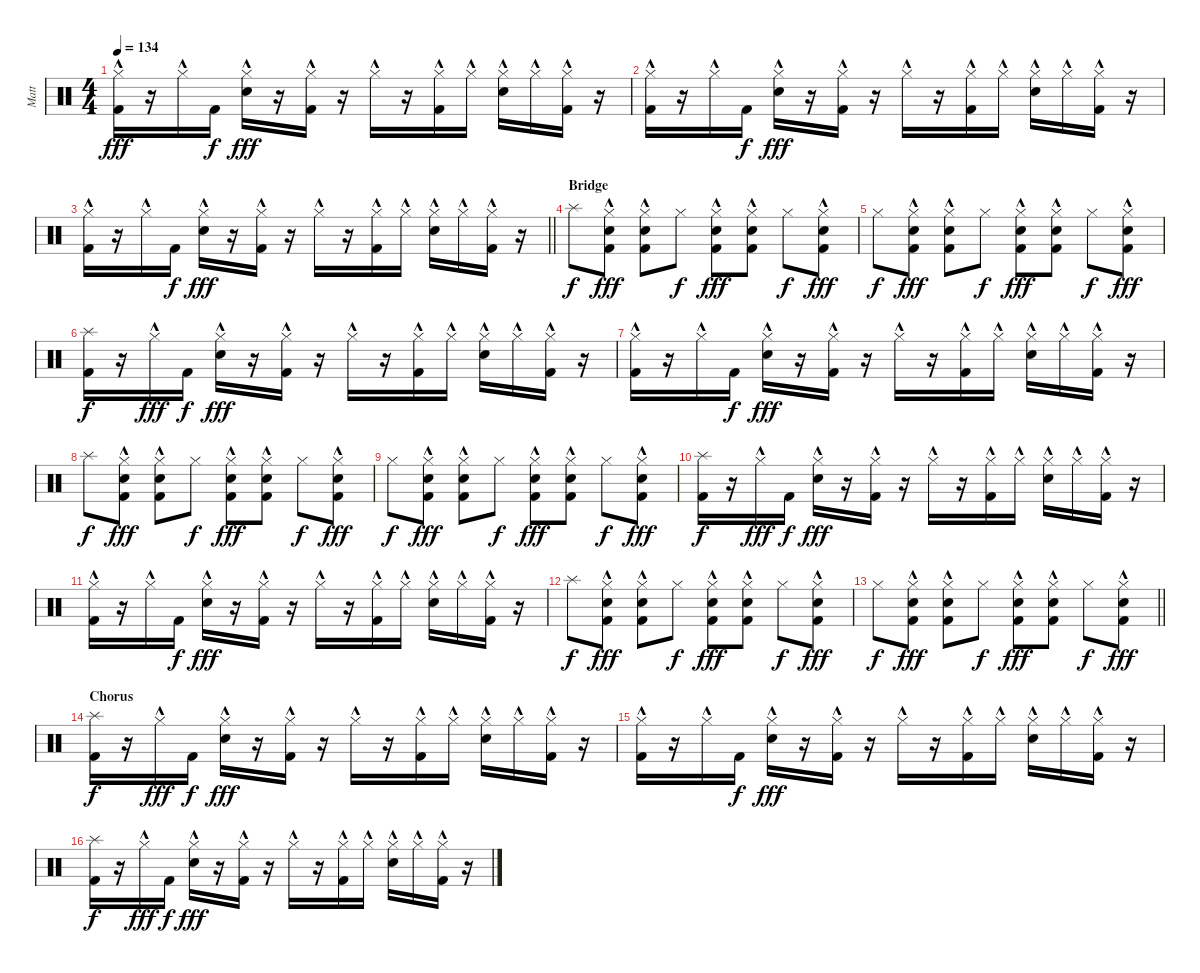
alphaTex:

\track ("Matt" "Matt") {instrument percussion}
\staff {score}
\articulation defaults
\ts (4 4)
\tempo 134
\clef neutral
\ks c
("Hi-Hat (closed)"{hac} "Kick (hit) 2").16{dy fff} r.16 "Hi-Hat (closed)"{hac}.16 "Kick (hit) 2".16{dy f} ("Hi-Hat (closed)"{hac} "Snare (hit) 2").16{dy fff} r.16 ("Hi-Hat (closed)"{hac} "Kick (hit) 2").16 r.16 "Hi-Hat (closed)"{hac}.16 r.16 ("Hi-Hat (closed)"{hac} "Kick (hit) 2").16 "Hi-Hat (closed)"{hac}.16 ("Hi-Hat (closed)"{hac} "Snare (hit) 2").16 "Hi-Hat (closed)"{hac}.16 ("Hi-Hat (closed)"{hac} "Kick (hit) 2").16 r.16 |
("Hi-Hat (closed)"{hac} "Kick (hit) 2").16 r.16 "Hi-Hat (closed)"{hac}.16 "Kick (hit) 2".16{dy f} ("Hi-Hat (closed)"{hac} "Snare (hit) 2").16{dy fff} r.16 ("Hi-Hat (closed)"{hac} "Kick (hit) 2").16 r.16 "Hi-Hat (closed)"{hac}.16 r.16 ("Hi-Hat (closed)"{hac} "Kick (hit) 2").16 "Hi-Hat (closed)"{hac}.16 ("Hi-Hat (closed)"{hac} "Snare (hit) 2").16 "Hi-Hat (closed)"{hac}.16 ("Hi-Hat (closed)"{hac} "Kick (hit) 2").16 r.16 |
\barLineRight lightlight
("Hi-Hat (closed)"{hac} "Kick (hit) 2").16 r.16 "Hi-Hat (closed)"{hac}.16 "Kick (hit) 2".16{dy f} ("Hi-Hat (closed)"{hac} "Snare (hit) 2").16{dy fff} r.16 ("Hi-Hat (closed)"{hac} "Kick (hit) 2").16 r.16 "Hi-Hat (closed)"{hac}.16 r.16 ("Hi-Hat (closed)"{hac} "Kick (hit) 2").16 "Hi-Hat (closed)"{hac}.16 ("Hi-Hat (closed)"{hac} "Snare (hit) 2").16 "Hi-Hat (closed)"{hac}.16 ("Hi-Hat (closed)"{hac} "Kick (hit) 2").16 r.16 |
\section ("" "Bridge")
"Splash (hit)".8{dy f} ("Hi-Hat (closed)"{hac} "Snare (hit) 2" "Kick (hit) 2").8{dy fff} ("Hi-Hat (closed)"{hac} "Snare (hit) 2" "Kick (hit) 2").8 "Hi-Hat (closed)".8{dy f} ("Hi-Hat (closed)"{hac} "Snare (hit) 2" "Kick (hit) 2").8{dy fff} ("Hi-Hat (closed)"{hac} "Snare (hit) 2" "Kick (hit) 2").8 "Hi-Hat (closed)".8{dy f} ("Hi-Hat (closed)"{hac} "Snare (hit) 2" "Kick (hit) 2").8{dy fff} |
"Hi-Hat (closed)".8{dy f} ("Hi-Hat (closed)"{hac} "Snare (hit) 2" "Kick (hit) 2").8{dy fff} ("Hi-Hat (closed)"{hac} "Snare (hit) 2" "Kick (hit) 2").8 "Hi-Hat (closed)".8{dy f} ("Hi-Hat (closed)"{hac} "Snare (hit) 2" "Kick (hit) 2").8{dy fff} ("Hi-Hat (closed)"{hac} "Snare (hit) 2" "Kick (hit) 2").8 "Hi-Hat (closed)".8{dy f} ("Hi-Hat (closed)"{hac} "Snare (hit) 2" "Kick (hit) 2").8{dy fff} |
("Splash (hit)" "Kick (hit) 2").16{dy f} r.16 "Hi-Hat (closed)"{hac}.16{dy fff} "Kick (hit) 2".16{dy f} ("Hi-Hat (closed)"{hac} "Snare (hit) 2").16{dy fff} r.16 ("Hi-Hat (closed)"{hac} "Kick (hit) 2").16 r.16 "Hi-Hat (closed)"{hac}.16 r.16 ("Hi-Hat (closed)"{hac} "Kick (hit) 2").16 "Hi-Hat (closed)"{hac}.16 ("Hi-Hat (closed)"{hac} "Snare (hit) 2").16 "Hi-Hat (closed)"{hac}.16 ("Hi-Hat (closed)"{hac} "Kick (hit) 2").16 r.16 |
("Hi-Hat (closed)"{hac} "Kick (hit) 2").16 r.16 "Hi-Hat (closed)"{hac}.16 "Kick (hit) 2".16{dy f} ("Hi-Hat (closed)"{hac} "Snare (hit) 2").16{dy fff} r.16 ("Hi-Hat (closed)"{hac} "Kick (hit) 2").16 r.16 "Hi-Hat (closed)"{hac}.16 r.16 ("Hi-Hat (closed)"{hac} "Kick (hit) 2").16 "Hi-Hat (closed)"{hac}.16 ("Hi-Hat (closed)"{hac} "Snare (hit) 2").16 "Hi-Hat (closed)"{hac}.16 ("Hi-Hat (closed)"{hac} "Kick (hit) 2").16 r.16 |
"Splash (hit)".8{dy f} ("Hi-Hat (closed)"{hac} "Snare (hit) 2" "Kick (hit) 2").8{dy fff} ("Hi-Hat (closed)"{hac} "Snare (hit) 2" "Kick (hit) 2").8 "Hi-Hat (closed)".8{dy f} ("Hi-Hat (closed)"{hac} "Snare (hit) 2" "Kick (hit) 2").8{dy fff} ("Hi-Hat (closed)"{hac} "Snare (hit) 2" "Kick (hit) 2").8 "Hi-Hat (closed)".8{dy f} ("Hi-Hat (closed)"{hac} "Snare (hit) 2" "Kick (hit) 2").8{dy fff} |
"Hi-Hat (closed)".8{dy f} ("Hi-Hat (closed)"{hac} "Snare (hit) 2" "Kick (hit) 2").8{dy fff} ("Hi-Hat (closed)"{hac} "Snare (hit) 2" "Kick (hit) 2").8 "Hi-Hat (closed)".8{dy f} ("Hi-Hat (closed)"{hac} "Snare (hit) 2" "Kick (hit) 2").8{dy fff} ("Hi-Hat (closed)"{hac} "Snare (hit) 2" "Kick (hit) 2").8 "Hi-Hat (closed)".8{dy f} ("Hi-Hat (closed)"{hac} "Snare (hit) 2" "Kick (hit) 2").8{dy fff} |
("Splash (hit)" "Kick (hit) 2").16{dy f} r.16 "Hi-Hat (closed)"{hac}.16{dy fff} "Kick (hit) 2".16{dy f} ("Hi-Hat (closed)"{hac} "Snare (hit) 2").16{dy fff} r.16 ("Hi-Hat (closed)"{hac} "Kick (hit) 2").16 r.16 "Hi-Hat (closed)"{hac}.16 r.16 ("Hi-Hat (closed)"{hac} "Kick (hit) 2").16 "Hi-Hat (closed)"{hac}.16 ("Hi-Hat (closed)"{hac} "Snare (hit) 2").16 "Hi-Hat (closed)"{hac}.16 ("Hi-Hat (closed)"{hac} "Kick (hit) 2").16 r.16 |
("Hi-Hat (closed)"{hac} "Kick (hit) 2").16 r.16 "Hi-Hat (closed)"{hac}.16 "Kick (hit) 2".16{dy f} ("Hi-Hat (closed)"{hac} "Snare (hit) 2").16{dy fff} r.16 ("Hi-Hat (closed)"{hac} "Kick (hit) 2").16 r.16 "Hi-Hat (closed)"{hac}.16 r.16 ("Hi-Hat (closed)"{hac} "Kick (hit) 2").16 "Hi-Hat (closed)"{hac}.16 ("Hi-Hat (closed)"{hac} "Snare (hit) 2").16 "Hi-Hat (closed)"{hac}.16 ("Hi-Hat (closed)"{hac} "Kick (hit) 2").16 r.16 |
"Splash (hit)".8{dy f} ("Hi-Hat (closed)"{hac} "Snare (hit) 2" "Kick (hit) 2").8{dy fff} ("Hi-Hat (closed)"{hac} "Snare (hit) 2" "Kick (hit) 2").8 "Hi-Hat (closed)".8{dy f} ("Hi-Hat (closed)"{hac} "Snare (hit) 2" "Kick (hit) 2").8{dy fff} ("Hi-Hat (closed)"{hac} "Snare (hit) 2" "Kick (hit) 2").8 "Hi-Hat (closed)".8{dy f} ("Hi-Hat (closed)"{hac} "Snare (hit) 2" "Kick (hit) 2").8{dy fff} |
\barLineRight lightlight "Hi-Hat (closed)".8{dy f}
("Hi-Hat (closed)"{hac} "Snare (hit) 2" "Kick (hit) 2").8{dy fff} ("Hi-Hat (closed)"{hac} "Snare (hit) 2" "Kick (hit) 2").8 "Hi-Hat (closed)".8{dy f} ("Hi-Hat (closed)"{hac} "Snare (hit) 2" "Kick (hit) 2").8{dy fff} ("Hi-Hat (closed)"{hac} "Snare (hit) 2" "Kick (hit) 2").8 "Hi-Hat (closed)".8{dy f} ("Hi-Hat (closed)"{hac} "Snare (hit) 2" "Kick (hit) 2").8{dy fff} |
\section ("" "Chorus")
("Splash (hit)" "Kick (hit) 2").16{dy f} r.16 "Hi-Hat (closed)"{hac}.16{dy fff} "Kick (hit) 2".16{dy f} ("Hi-Hat (closed)"{hac} "Snare (hit) 2").16{dy fff} r.16 ("Hi-Hat (closed)"{hac} "Kick (hit) 2").16 r.16 "Hi-Hat (closed)"{hac}.16 r.16 ("Hi-Hat (closed)"{hac} "Kick (hit) 2").16 "Hi-Hat (closed)"{hac}.16 ("Hi-Hat (closed)"{hac} "Snare (hit) 2").16 "Hi-Hat (closed)"{hac}.16 ("Hi-Hat (closed)"{hac} "Kick (hit) 2").16 r.16 |
("Hi-Hat (closed)"{hac} "Kick (hit) 2").16 r.16 "Hi-Hat (closed)"{hac}.16 "Kick (hit) 2".16{dy f} ("Hi-Hat (closed)"{hac} "Snare (hit) 2").16{dy fff} r.16 ("Hi-Hat (closed)"{hac} "Kick (hit) 2").16 r.16 "Hi-Hat (closed)"{hac}.16 r.16 ("Hi-Hat (closed)"{hac} "Kick (hit) 2").16 "Hi-Hat (closed)"{hac}.16 ("Hi-Hat (closed)"{hac} "Snare (hit) 2").16 "Hi-Hat (closed)"{hac}.16 ("Hi-Hat (closed)"{hac} "Kick (hit) 2").16 r.16 |
("Splash (hit)" "Kick (hit) 2").16{dy f} r.16 "Hi-Hat (closed)"{hac}.16{dy fff} "Kick (hit) 2".16{dy f} ("Hi-Hat (closed)"{hac} "Snare (hit) 2").16{dy fff} r.16 ("Hi-Hat (closed)"{hac} "Kick (hit) 2").16 r.16 "Hi-Hat (closed)"{hac}.16 r.16 ("Hi-Hat (closed)"{hac} "Kick (hit) 2").16 "Hi-Hat (closed)"{hac}.16 ("Hi-Hat (closed)"{hac} "Snare (hit) 2").16 "Hi-Hat (closed)"{hac}.16 ("Hi-Hat (closed)"{hac} "Kick (hit) 2").16 r.16
